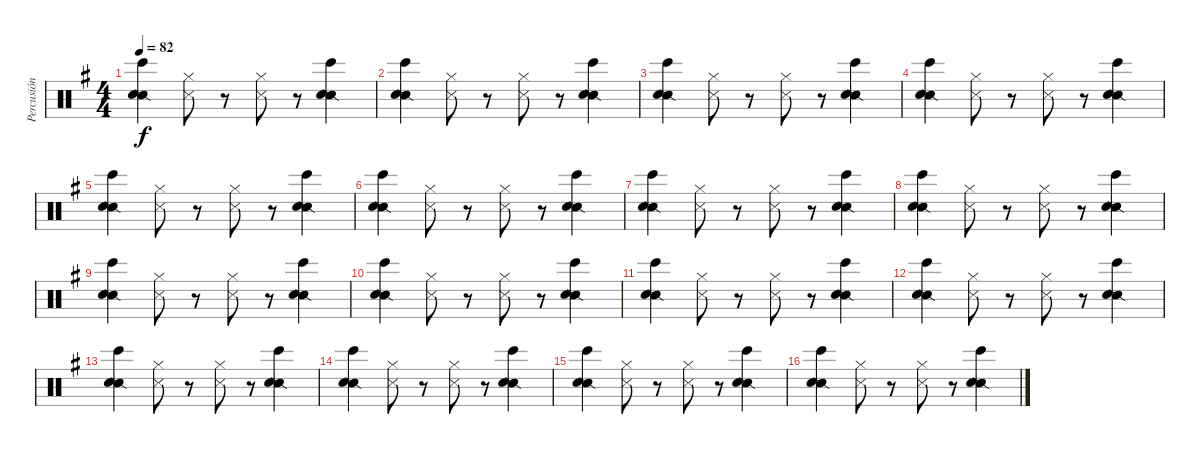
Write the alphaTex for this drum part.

\track ("Percusión" "Percusión") {instrument percussion}
\staff {score}
\articulation defaults
\ts (4 4)
\tempo 82
\clef neutral
\ks eminor
("Bongo High (hit)" "Snare (side stick) 2" "Hand Clap (hit)").4{dy f} ("Hi-Hat (closed)" "Snare (side stick) 3").8 r.8 ("Hi-Hat (closed)" "Snare (side stick) 3").8 r.8 ("Bongo High (hit)" "Snare (side stick) 2" "Hand Clap (hit)").4 |
("Bongo High (hit)" "Snare (side stick) 2" "Hand Clap (hit)").4 ("Hi-Hat (closed)" "Snare (side stick) 3").8 r.8 ("Hi-Hat (closed)" "Snare (side stick) 3").8 r.8 ("Bongo High (hit)" "Snare (side stick) 2" "Hand Clap (hit)").4 |
("Bongo High (hit)" "Snare (side stick) 2" "Hand Clap (hit)").4 ("Hi-Hat (closed)" "Snare (side stick) 3").8 r.8 ("Hi-Hat (closed)" "Snare (side stick) 3").8 r.8 ("Bongo High (hit)" "Snare (side stick) 2" "Hand Clap (hit)").4 |
("Bongo High (hit)" "Snare (side stick) 2" "Hand Clap (hit)").4 ("Hi-Hat (closed)" "Snare (side stick) 3").8 r.8 ("Hi-Hat (closed)" "Snare (side stick) 3").8 r.8 ("Bongo High (hit)" "Snare (side stick) 2" "Hand Clap (hit)").4 |
("Bongo High (hit)" "Snare (side stick) 2" "Hand Clap (hit)").4 ("Hi-Hat (closed)" "Snare (side stick) 3").8 r.8 ("Hi-Hat (closed)" "Snare (side stick) 3").8 r.8 ("Bongo High (hit)" "Snare (side stick) 2" "Hand Clap (hit)").4 |
("Bongo High (hit)" "Snare (side stick) 2" "Hand Clap (hit)").4 ("Hi-Hat (closed)" "Snare (side stick) 3").8 r.8 ("Hi-Hat (closed)" "Snare (side stick) 3").8 r.8 ("Bongo High (hit)" "Snare (side stick) 2" "Hand Clap (hit)").4 |
("Bongo High (hit)" "Snare (side stick) 2" "Hand Clap (hit)").4 ("Hi-Hat (closed)" "Snare (side stick) 3").8 r.8 ("Hi-Hat (closed)" "Snare (side stick) 3").8 r.8 ("Bongo High (hit)" "Snare (side stick) 2" "Hand Clap (hit)").4 |
("Bongo High (hit)" "Snare (side stick) 2" "Hand Clap (hit)").4 ("Hi-Hat (closed)" "Snare (side stick) 3").8 r.8 ("Hi-Hat (closed)" "Snare (side stick) 3").8 r.8 ("Bongo High (hit)" "Snare (side stick) 2" "Hand Clap (hit)").4 |
("Bongo High (hit)" "Snare (side stick) 2" "Hand Clap (hit)").4 ("Hi-Hat (closed)" "Snare (side stick) 3").8 r.8 ("Hi-Hat (closed)" "Snare (side stick) 3").8 r.8 ("Bongo High (hit)" "Snare (side stick) 2" "Hand Clap (hit)").4 |
("Bongo High (hit)" "Snare (side stick) 2" "Hand Clap (hit)").4 ("Hi-Hat (closed)" "Snare (side stick) 3").8 r.8 ("Hi-Hat (closed)" "Snare (side stick) 3").8 r.8 ("Bongo High (hit)" "Snare (side stick) 2" "Hand Clap (hit)").4 |
("Bongo High (hit)" "Snare (side stick) 2" "Hand Clap (hit)").4 ("Hi-Hat (closed)" "Snare (side stick) 3").8 r.8 ("Hi-Hat (closed)" "Snare (side stick) 3").8 r.8 ("Bongo High (hit)" "Snare (side stick) 2" "Hand Clap (hit)").4 |
("Bongo High (hit)" "Snare (side stick) 2" "Hand Clap (hit)").4 ("Hi-Hat (closed)" "Snare (side stick) 3").8 r.8 ("Hi-Hat (closed)" "Snare (side stick) 3").8 r.8 ("Bongo High (hit)" "Snare (side stick) 2" "Hand Clap (hit)").4 |
("Bongo High (hit)" "Snare (side stick) 2" "Hand Clap (hit)").4 ("Hi-Hat (closed)" "Snare (side stick) 3").8 r.8 ("Hi-Hat (closed)" "Snare (side stick) 3").8 r.8 ("Bongo High (hit)" "Snare (side stick) 2" "Hand Clap (hit)").4 |
("Bongo High (hit)" "Snare (side stick) 2" "Hand Clap (hit)").4 ("Hi-Hat (closed)" "Snare (side stick) 3").8 r.8 ("Hi-Hat (closed)" "Snare (side stick) 3").8 r.8 ("Bongo High (hit)" "Snare (side stick) 2" "Hand Clap (hit)").4 |
("Bongo High (hit)" "Snare (side stick) 2" "Hand Clap (hit)").4 ("Hi-Hat (closed)" "Snare (side stick) 3").8 r.8 ("Hi-Hat (closed)" "Snare (side stick) 3").8 r.8 ("Bongo High (hit)" "Snare (side stick) 2" "Hand Clap (hit)").4 |
("Bongo High (hit)" "Snare (side stick) 2" "Hand Clap (hit)").4 ("Hi-Hat (closed)" "Snare (side stick) 3").8 r.8 ("Hi-Hat (closed)" "Snare (side stick) 3").8 r.8 ("Bongo High (hit)" "Snare (side stick) 2" "Hand Clap (hit)").4
